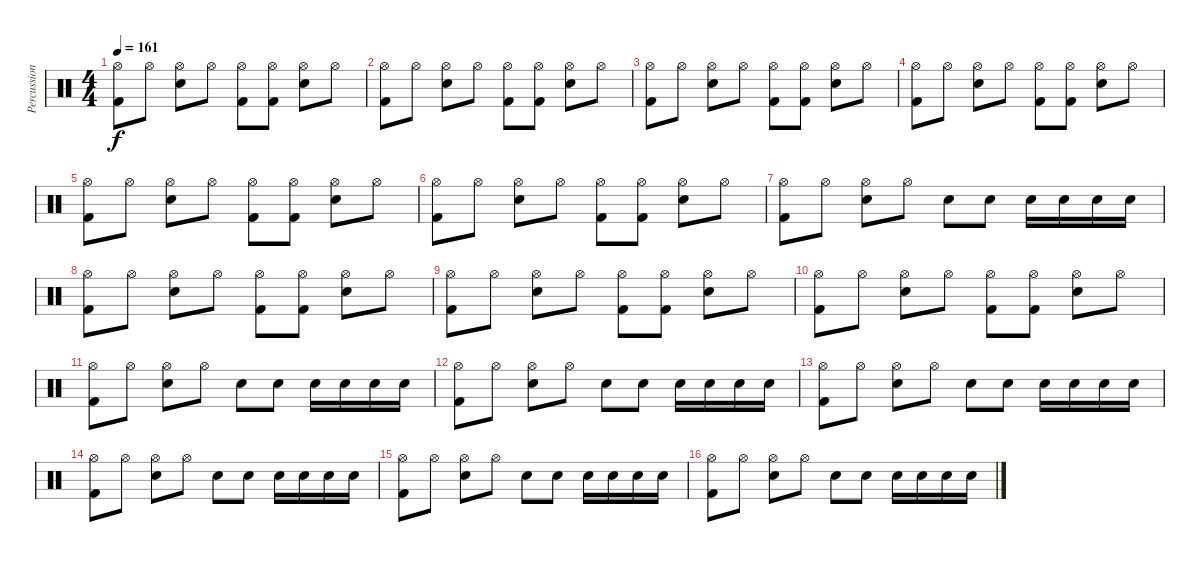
\track ("Percussion" "Percussion") {instrument percussion}
\staff {score}
\articulation defaults
\ts (4 4)
\tempo 161
\clef neutral
\ks c
("Hi-Hat (open)" "Kick (hit) 2").8{dy f} "Hi-Hat (open)".8 ("Hi-Hat (open)" "Snare (hit) 2").8 "Hi-Hat (open)".8 ("Hi-Hat (open)" "Kick (hit) 2").8 ("Hi-Hat (open)" "Kick (hit) 2").8 ("Hi-Hat (open)" "Snare (hit) 2").8 "Hi-Hat (open)".8 |
("Hi-Hat (open)" "Kick (hit) 2").8 "Hi-Hat (open)".8 ("Hi-Hat (open)" "Snare (hit) 2").8 "Hi-Hat (open)".8 ("Hi-Hat (open)" "Kick (hit) 2").8 ("Hi-Hat (open)" "Kick (hit) 2").8 ("Hi-Hat (open)" "Snare (hit) 2").8 "Hi-Hat (open)".8 |
("Hi-Hat (open)" "Kick (hit) 2").8 "Hi-Hat (open)".8 ("Hi-Hat (open)" "Snare (hit) 2").8 "Hi-Hat (open)".8 ("Hi-Hat (open)" "Kick (hit) 2").8 ("Hi-Hat (open)" "Kick (hit) 2").8 ("Hi-Hat (open)" "Snare (hit) 2").8 "Hi-Hat (open)".8 |
("Hi-Hat (open)" "Kick (hit) 2").8 "Hi-Hat (open)".8 ("Hi-Hat (open)" "Snare (hit) 2").8 "Hi-Hat (open)".8 ("Hi-Hat (open)" "Kick (hit) 2").8 ("Hi-Hat (open)" "Kick (hit) 2").8 ("Hi-Hat (open)" "Snare (hit) 2").8 "Hi-Hat (open)".8 |
("Hi-Hat (open)" "Kick (hit) 2").8 "Hi-Hat (open)".8 ("Hi-Hat (open)" "Snare (hit) 2").8 "Hi-Hat (open)".8 ("Hi-Hat (open)" "Kick (hit) 2").8 ("Hi-Hat (open)" "Kick (hit) 2").8 ("Hi-Hat (open)" "Snare (hit) 2").8 "Hi-Hat (open)".8 |
("Hi-Hat (open)" "Kick (hit) 2").8 "Hi-Hat (open)".8 ("Hi-Hat (open)" "Snare (hit) 2").8 "Hi-Hat (open)".8 ("Hi-Hat (open)" "Kick (hit) 2").8 ("Hi-Hat (open)" "Kick (hit) 2").8 ("Hi-Hat (open)" "Snare (hit) 2").8 "Hi-Hat (open)".8 |
("Hi-Hat (open)" "Kick (hit) 2").8 "Hi-Hat (open)".8 ("Hi-Hat (open)" "Snare (hit) 2").8 "Hi-Hat (open)".8 "Snare (hit) 2".8 "Snare (hit) 2".8 "Snare (hit) 2".16 "Snare (hit) 2".16 "Snare (hit) 2".16 "Snare (hit) 2".16 |
("Hi-Hat (open)" "Kick (hit) 2").8 "Hi-Hat (open)".8 ("Hi-Hat (open)" "Snare (hit) 2").8 "Hi-Hat (open)".8 ("Hi-Hat (open)" "Kick (hit) 2").8 ("Hi-Hat (open)" "Kick (hit) 2").8 ("Hi-Hat (open)" "Snare (hit) 2").8 "Hi-Hat (open)".8 |
("Hi-Hat (open)" "Kick (hit) 2").8 "Hi-Hat (open)".8 ("Hi-Hat (open)" "Snare (hit) 2").8 "Hi-Hat (open)".8 ("Hi-Hat (open)" "Kick (hit) 2").8 ("Hi-Hat (open)" "Kick (hit) 2").8 ("Hi-Hat (open)" "Snare (hit) 2").8 "Hi-Hat (open)".8 |
("Hi-Hat (open)" "Kick (hit) 2").8 "Hi-Hat (open)".8 ("Hi-Hat (open)" "Snare (hit) 2").8 "Hi-Hat (open)".8 ("Hi-Hat (open)" "Kick (hit) 2").8 ("Hi-Hat (open)" "Kick (hit) 2").8 ("Hi-Hat (open)" "Snare (hit) 2").8 "Hi-Hat (open)".8 |
("Hi-Hat (open)" "Kick (hit) 2").8 "Hi-Hat (open)".8 ("Hi-Hat (open)" "Snare (hit) 2").8 "Hi-Hat (open)".8 "Snare (hit) 2".8 "Snare (hit) 2".8 "Snare (hit) 2".16 "Snare (hit) 2".16 "Snare (hit) 2".16 "Snare (hit) 2".16 |
("Hi-Hat (open)" "Kick (hit) 2").8 "Hi-Hat (open)".8 ("Hi-Hat (open)" "Snare (hit) 2").8 "Hi-Hat (open)".8 "Snare (hit) 2".8 "Snare (hit) 2".8 "Snare (hit) 2".16 "Snare (hit) 2".16 "Snare (hit) 2".16 "Snare (hit) 2".16 |
("Hi-Hat (open)" "Kick (hit) 2").8 "Hi-Hat (open)".8 ("Hi-Hat (open)" "Snare (hit) 2").8 "Hi-Hat (open)".8 "Snare (hit) 2".8 "Snare (hit) 2".8 "Snare (hit) 2".16 "Snare (hit) 2".16 "Snare (hit) 2".16 "Snare (hit) 2".16 |
("Hi-Hat (open)" "Kick (hit) 2").8 "Hi-Hat (open)".8 ("Hi-Hat (open)" "Snare (hit) 2").8 "Hi-Hat (open)".8 "Snare (hit) 2".8 "Snare (hit) 2".8 "Snare (hit) 2".16 "Snare (hit) 2".16 "Snare (hit) 2".16 "Snare (hit) 2".16 |
("Hi-Hat (open)" "Kick (hit) 2").8 "Hi-Hat (open)".8 ("Hi-Hat (open)" "Snare (hit) 2").8 "Hi-Hat (open)".8 "Snare (hit) 2".8 "Snare (hit) 2".8 "Snare (hit) 2".16 "Snare (hit) 2".16 "Snare (hit) 2".16 "Snare (hit) 2".16 |
("Hi-Hat (open)" "Kick (hit) 2").8 "Hi-Hat (open)".8 ("Hi-Hat (open)" "Snare (hit) 2").8 "Hi-Hat (open)".8 "Snare (hit) 2".8 "Snare (hit) 2".8 "Snare (hit) 2".16 "Snare (hit) 2".16 "Snare (hit) 2".16 "Snare (hit) 2".16
